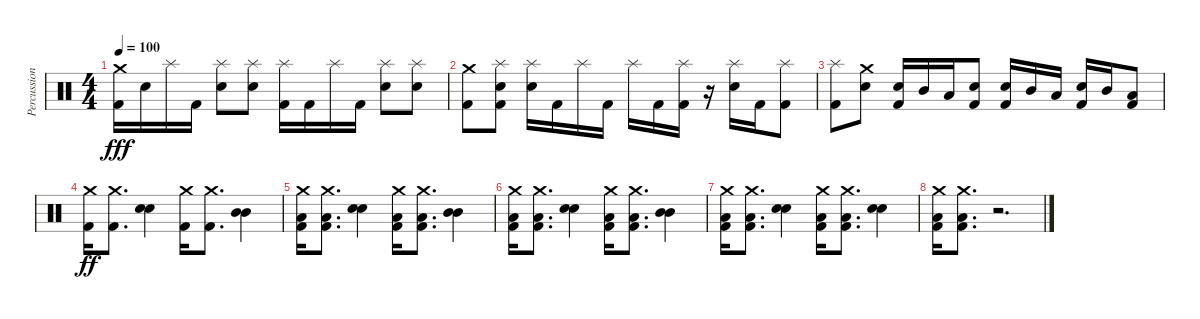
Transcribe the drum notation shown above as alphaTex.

\track ("Percussion" "Percussion") {instrument percussion}
\staff {score}
\articulation defaults
\ts (4 4)
\tempo 100
\clef neutral
\ks c
("Crash medium (hit)" "Kick (hit) 2").16{dy fff} "Snare (hit) 2".16 "Splash (hit)".16 "Kick (hit) 2".16 ("Splash (hit)" "Snare (hit) 2").8 ("Splash (hit)" "Snare (hit) 2").8 ("Splash (hit)" "Kick (hit) 2").16 "Kick (hit) 2".16 "Splash (hit)".16 "Kick (hit) 2".16 ("Splash (hit)" "Snare (hit) 2").8 ("Splash (hit)" "Snare (hit) 2").8 |
("Crash medium (hit)" "Kick (hit) 2").8 ("Splash (hit)" "Snare (hit) 2" "Kick (hit) 2").8 ("Splash (hit)" "Snare (hit) 2").16 "Kick (hit) 2".16 "Splash (hit)".16 "Kick (hit) 2".16 "Splash (hit)".16 "Kick (hit) 2".16 ("Splash (hit)" "Kick (hit) 2").16 r.16 ("Splash (hit)" "Snare (hit) 2").16 "Kick (hit) 2".16 ("Splash (hit)" "Kick (hit) 2").8 |
("Splash (hit)" "Kick (hit) 2").8 ("Crash medium (hit)" "Snare (hit) 2").8 ("Snare (hit) 2" "Kick (hit) 2").16 "Mid Tom (hit)".16 "Low Tom (hit)".16 ("Snare (hit) 2" "Kick (hit) 2").8 ("Snare (hit) 2" "Kick (hit) 2").16 "Mid Tom (hit)".16 "Low Tom (hit)".16 ("Snare (hit) 2" "Kick (hit) 2").16 "Mid Tom (hit)".16 ("Low Tom (hit)" "Kick (hit) 2").8 |
("Crash medium (hit)" "Kick (hit) 2").16{dy ff} ("Crash medium (hit)" "Kick (hit) 2").8{d} ("Snare (hit) 2" "Snare (hit) 2").4 ("Crash medium (hit)" "Kick (hit) 2").16 ("Crash medium (hit)" "Kick (hit) 2").8{d} ("Mid Tom (hit)" "Mid Tom (hit)").4 |
("Crash medium (hit)" "Low Tom (hit)" "Kick (hit) 2").16 ("Crash medium (hit)" "Low Tom (hit)" "Kick (hit) 2").8{d} ("Snare (hit) 2" "Snare (hit) 2").4 ("Crash medium (hit)" "Low Tom (hit)" "Kick (hit) 2").16 ("Crash medium (hit)" "Low Tom (hit)" "Kick (hit) 2").8{d} ("Mid Tom (hit)" "Mid Tom (hit)").4 |
("Crash medium (hit)" "Low Tom (hit)" "Kick (hit) 2").16 ("Crash medium (hit)" "Low Tom (hit)" "Kick (hit) 2").8{d} ("Snare (hit) 2" "Snare (hit) 2").4 ("Crash medium (hit)" "Low Tom (hit)" "Kick (hit) 2").16 ("Crash medium (hit)" "Low Tom (hit)" "Kick (hit) 2").8{d} ("Mid Tom (hit)" "Mid Tom (hit)").4 |
("Crash medium (hit)" "Low Tom (hit)" "Kick (hit) 2").16 ("Crash medium (hit)" "Low Tom (hit)" "Kick (hit) 2").8{d} ("Snare (hit) 2" "Snare (hit) 2").4 ("Crash medium (hit)" "Low Tom (hit)" "Kick (hit) 2").16 ("Crash medium (hit)" "Low Tom (hit)" "Kick (hit) 2").8{d} ("Snare (hit) 2" "Snare (hit) 2").4 |
("Crash medium (hit)" "Low Tom (hit)" "Kick (hit) 2").16 ("Crash medium (hit)" "Low Tom (hit)" "Kick (hit) 2").8{d} r.2{d}
